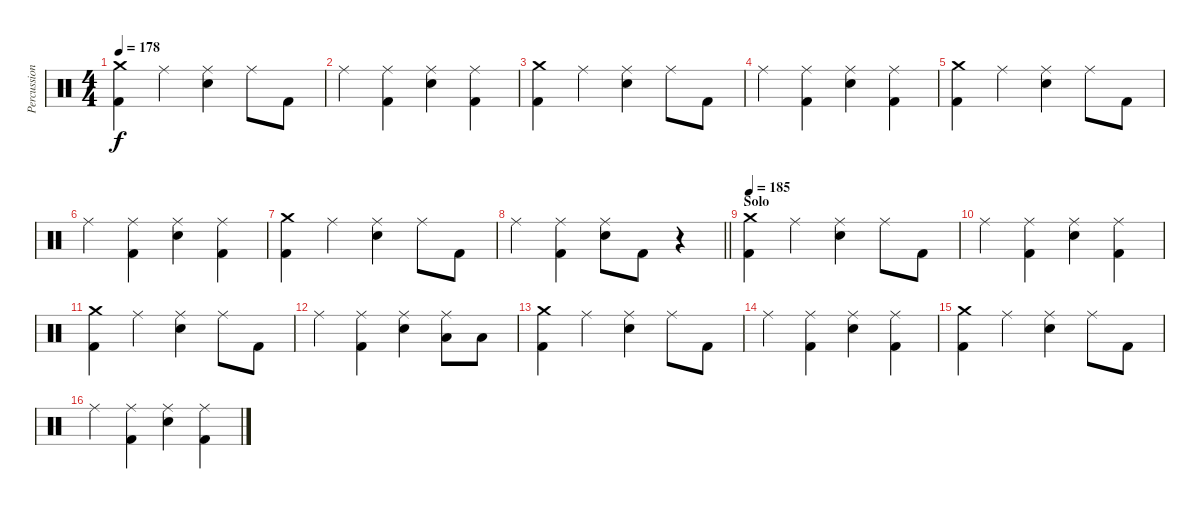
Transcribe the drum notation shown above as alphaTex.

\track ("Percussions" "Percussion") {instrument percussion}
\staff {score}
\articulation defaults
\ts (4 4)
\tempo 178
\clef neutral
\ks c
("Crash medium (hit)" "Kick (hit) 2").4{dy f} "Ride (middle)".4 ("Ride (middle)" "Electric Snare (hit)").4 "Ride (middle)".8 "Kick (hit) 2".8 |
"Ride (middle)".4 ("Ride (middle)" "Kick (hit) 2").4 ("Ride (middle)" "Electric Snare (hit)").4 ("Ride (middle)" "Kick (hit) 2").4 |
("Crash medium (hit)" "Kick (hit) 2").4 "Ride (middle)".4 ("Ride (middle)" "Electric Snare (hit)").4 "Ride (middle)".8 "Kick (hit) 2".8 |
"Ride (middle)".4 ("Ride (middle)" "Kick (hit) 2").4 ("Ride (middle)" "Electric Snare (hit)").4 ("Ride (middle)" "Kick (hit) 2").4 |
("Crash medium (hit)" "Kick (hit) 2").4 "Ride (middle)".4 ("Ride (middle)" "Electric Snare (hit)").4 "Ride (middle)".8 "Kick (hit) 2".8 |
"Ride (middle)".4 ("Ride (middle)" "Kick (hit) 2").4 ("Ride (middle)" "Electric Snare (hit)").4 ("Ride (middle)" "Kick (hit) 2").4 |
("Crash medium (hit)" "Kick (hit) 2").4 "Ride (middle)".4 ("Ride (middle)" "Electric Snare (hit)").4 "Ride (middle)".8 "Kick (hit) 2".8 |
\barLineRight lightlight "Ride (middle)".4
("Ride (middle)" "Kick (hit) 2").4 ("Ride (middle)" "Electric Snare (hit)").8 "Kick (hit) 2".8 r.4 |
\section ("" "Solo")
\tempo 185
("Crash medium (hit)" "Kick (hit) 2").4 "Ride (middle)".4 ("Ride (middle)" "Electric Snare (hit)").4 "Ride (middle)".8 "Kick (hit) 2".8 |
"Ride (middle)".4 ("Ride (middle)" "Kick (hit) 2").4 ("Ride (middle)" "Electric Snare (hit)").4 ("Ride (middle)" "Kick (hit) 2").4 |
("Crash medium (hit)" "Kick (hit) 2").4 "Ride (middle)".4 ("Ride (middle)" "Electric Snare (hit)").4 "Ride (middle)".8 "Kick (hit) 2".8 |
"Ride (middle)".4 ("Ride (middle)" "Kick (hit) 2").4 ("Ride (middle)" "Electric Snare (hit)").4 ("Ride (middle)" "Low Tom (hit)").8 "Low Tom (hit)".8 |
("Crash medium (hit)" "Kick (hit) 2").4 "Ride (middle)".4 ("Ride (middle)" "Electric Snare (hit)").4 "Ride (middle)".8 "Kick (hit) 2".8 |
"Ride (middle)".4 ("Ride (middle)" "Kick (hit) 2").4 ("Ride (middle)" "Electric Snare (hit)").4 ("Ride (middle)" "Kick (hit) 2").4 |
("Crash medium (hit)" "Kick (hit) 2").4 "Ride (middle)".4 ("Ride (middle)" "Electric Snare (hit)").4 "Ride (middle)".8 "Kick (hit) 2".8 |
"Ride (middle)".4 ("Ride (middle)" "Kick (hit) 2").4 ("Ride (middle)" "Electric Snare (hit)").4 ("Ride (middle)" "Kick (hit) 2").4
